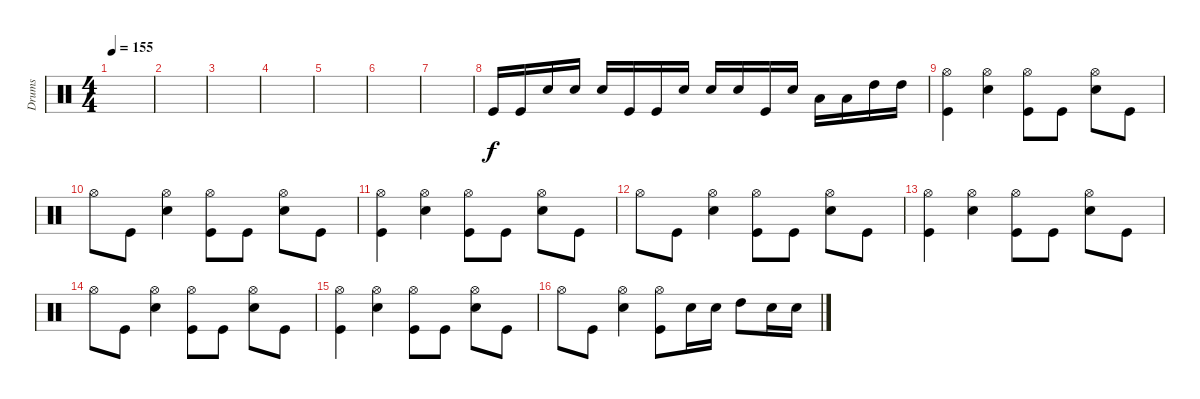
\track ("Drums" "Drums") {instrument percussion}
\staff {score}
\articulation defaults
\ts (4 4)
\tempo 155
\clef neutral
\ks c
|
|
|
|
|
|
|
"Kick (hit)".16 "Kick (hit)".16 "Snare (hit) 2".16 "Snare (hit) 2".16 "Snare (hit) 2".16 "Kick (hit)".16 "Kick (hit)".16 "Snare (hit) 2".16 "Snare (hit) 2".16 "Snare (hit) 2".16 "Kick (hit)".16 "Snare (hit) 2".16 "Low Tom (hit)".16 "Low Tom (hit)".16 "High Tom (hit)".16 "High Tom (hit)".16 |
("Kick (hit)" "Hi-Hat (open)").4 ("Snare (hit) 2" "Hi-Hat (open)").4 ("Kick (hit)" "Hi-Hat (open)").8 "Kick (hit)".8 ("Snare (hit) 2" "Hi-Hat (open)").8 "Kick (hit)".8 |
"Hi-Hat (open)".8 "Kick (hit)".8 ("Snare (hit) 2" "Hi-Hat (open)").4 ("Kick (hit)" "Hi-Hat (open)").8 "Kick (hit)".8 ("Snare (hit) 2" "Hi-Hat (open)").8 "Kick (hit)".8 |
("Kick (hit)" "Hi-Hat (open)").4 ("Snare (hit) 2" "Hi-Hat (open)").4 ("Kick (hit)" "Hi-Hat (open)").8 "Kick (hit)".8 ("Snare (hit) 2" "Hi-Hat (open)").8 "Kick (hit)".8 |
"Hi-Hat (open)".8 "Kick (hit)".8 ("Snare (hit) 2" "Hi-Hat (open)").4 ("Kick (hit)" "Hi-Hat (open)").8 "Kick (hit)".8 ("Snare (hit) 2" "Hi-Hat (open)").8 "Kick (hit)".8 |
("Kick (hit)" "Hi-Hat (open)").4 ("Snare (hit) 2" "Hi-Hat (open)").4 ("Kick (hit)" "Hi-Hat (open)").8 "Kick (hit)".8 ("Snare (hit) 2" "Hi-Hat (open)").8 "Kick (hit)".8 |
"Hi-Hat (open)".8 "Kick (hit)".8 ("Snare (hit) 2" "Hi-Hat (open)").4 ("Kick (hit)" "Hi-Hat (open)").8 "Kick (hit)".8 ("Snare (hit) 2" "Hi-Hat (open)").8 "Kick (hit)".8 |
("Kick (hit)" "Hi-Hat (open)").4 ("Snare (hit) 2" "Hi-Hat (open)").4 ("Kick (hit)" "Hi-Hat (open)").8 "Kick (hit)".8 ("Snare (hit) 2" "Hi-Hat (open)").8 "Kick (hit)".8 |
"Hi-Hat (open)".8 "Kick (hit)".8 ("Snare (hit) 2" "Hi-Hat (open)").4 ("Kick (hit)" "Hi-Hat (open)").8 "Snare (hit) 2".16 "Snare (hit) 2".16 "High Tom (hit)".8 "Snare (hit) 2".16 "Snare (hit) 2".16
